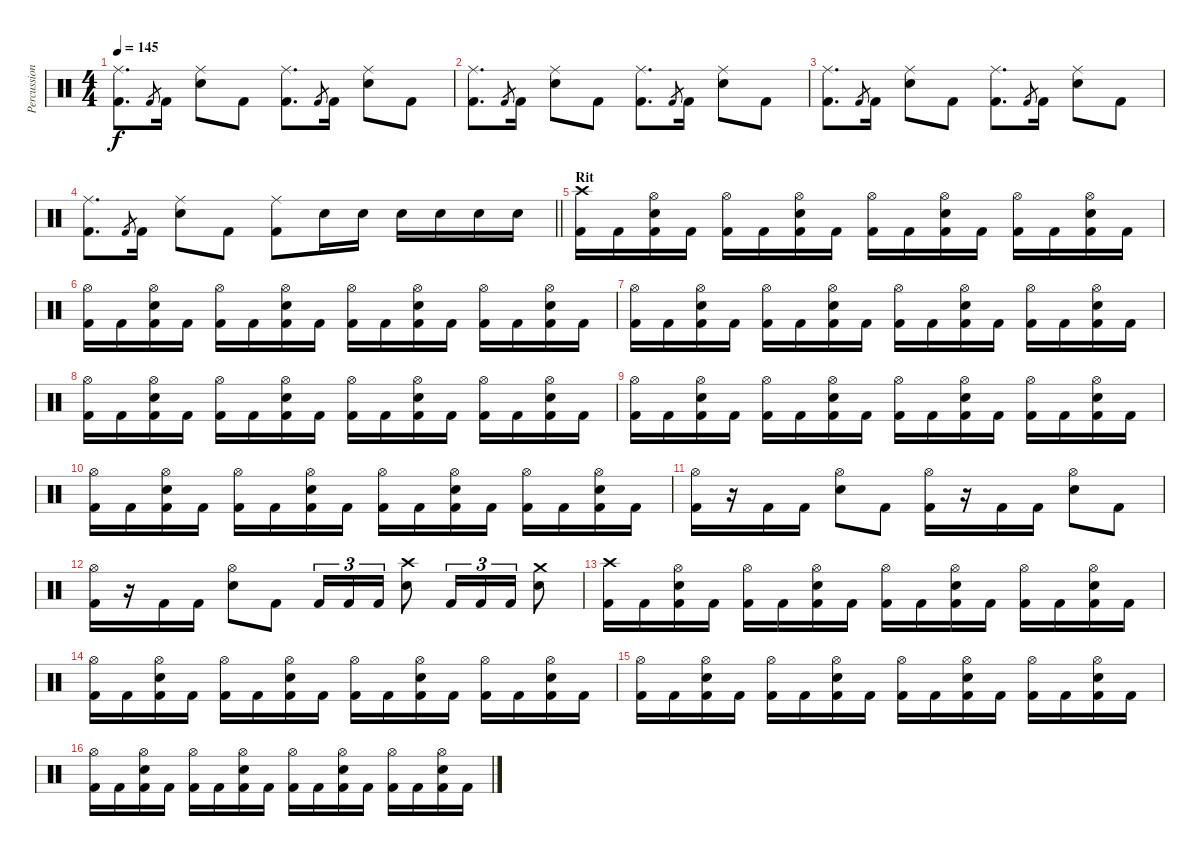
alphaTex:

\track ("Percussioni" "Percussion") {instrument percussion}
\staff {score}
\articulation defaults
\ts (4 4)
\tempo 145
\clef neutral
\ks c
("Ride (middle)" "Kick (hit) 2").8{d dy f} "Kick (hit) 2".8{gr} "Kick (hit) 2".16 ("Ride (middle)" "Snare (hit) 2").8 "Kick (hit) 2".8 ("Ride (middle)" "Kick (hit) 2").8{d} "Kick (hit) 2".8{gr} "Kick (hit) 2".16 ("Ride (middle)" "Snare (hit) 2").8 "Kick (hit) 2".8 |
("Ride (middle)" "Kick (hit) 2").8{d} "Kick (hit) 2".8{gr} "Kick (hit) 2".16 ("Ride (middle)" "Snare (hit) 2").8 "Kick (hit) 2".8 ("Ride (middle)" "Kick (hit) 2").8{d} "Kick (hit) 2".8{gr} "Kick (hit) 2".16 ("Ride (middle)" "Snare (hit) 2").8 "Kick (hit) 2".8 |
("Ride (middle)" "Kick (hit) 2").8{d} "Kick (hit) 2".8{gr} "Kick (hit) 2".16 ("Ride (middle)" "Snare (hit) 2").8 "Kick (hit) 2".8 ("Ride (middle)" "Kick (hit) 2").8{d} "Kick (hit) 2".8{gr} "Kick (hit) 2".16 ("Ride (middle)" "Snare (hit) 2").8 "Kick (hit) 2".8 |
\barLineRight lightlight
("Ride (middle)" "Kick (hit) 2").8{d} "Kick (hit) 2".8{gr} "Kick (hit) 2".16 ("Ride (middle)" "Snare (hit) 2").8 "Kick (hit) 2".8 ("Ride (middle)" "Kick (hit) 2").8 "Snare (hit) 2".16 "Snare (hit) 2".16 "Snare (hit) 2".16 "Snare (hit) 2".16 "Snare (hit) 2".16 "Snare (hit) 2".16 |
\section ("" "Rit")
("Crash high (hit)" "Kick (hit) 2").16 "Kick (hit) 2".16 ("Hi-Hat (open)" "Kick (hit) 2" "Snare (hit) 2").16 "Kick (hit) 2".16 ("Hi-Hat (open)" "Kick (hit) 2").16 "Kick (hit) 2".16 ("Hi-Hat (open)" "Kick (hit) 2" "Snare (hit) 2").16 "Kick (hit) 2".16 ("Hi-Hat (open)" "Kick (hit) 2").16 "Kick (hit) 2".16 ("Hi-Hat (open)" "Kick (hit) 2" "Snare (hit) 2").16 "Kick (hit) 2".16 ("Hi-Hat (open)" "Kick (hit) 2").16 "Kick (hit) 2".16 ("Hi-Hat (open)" "Kick (hit) 2" "Snare (hit) 2").16 "Kick (hit) 2".16 |
("Hi-Hat (open)" "Kick (hit) 2").16 "Kick (hit) 2".16 ("Hi-Hat (open)" "Kick (hit) 2" "Snare (hit) 2").16 "Kick (hit) 2".16 ("Hi-Hat (open)" "Kick (hit) 2").16 "Kick (hit) 2".16 ("Hi-Hat (open)" "Kick (hit) 2" "Snare (hit) 2").16 "Kick (hit) 2".16 ("Hi-Hat (open)" "Kick (hit) 2").16 "Kick (hit) 2".16 ("Hi-Hat (open)" "Kick (hit) 2" "Snare (hit) 2").16 "Kick (hit) 2".16 ("Hi-Hat (open)" "Kick (hit) 2").16 "Kick (hit) 2".16 ("Hi-Hat (open)" "Kick (hit) 2" "Snare (hit) 2").16 "Kick (hit) 2".16 |
("Hi-Hat (open)" "Kick (hit) 2").16 "Kick (hit) 2".16 ("Hi-Hat (open)" "Kick (hit) 2" "Snare (hit) 2").16 "Kick (hit) 2".16 ("Hi-Hat (open)" "Kick (hit) 2").16 "Kick (hit) 2".16 ("Hi-Hat (open)" "Kick (hit) 2" "Snare (hit) 2").16 "Kick (hit) 2".16 ("Hi-Hat (open)" "Kick (hit) 2").16 "Kick (hit) 2".16 ("Hi-Hat (open)" "Kick (hit) 2" "Snare (hit) 2").16 "Kick (hit) 2".16 ("Hi-Hat (open)" "Kick (hit) 2").16 "Kick (hit) 2".16 ("Hi-Hat (open)" "Kick (hit) 2" "Snare (hit) 2").16 "Kick (hit) 2".16 |
("Hi-Hat (open)" "Kick (hit) 2").16 "Kick (hit) 2".16 ("Hi-Hat (open)" "Kick (hit) 2" "Snare (hit) 2").16 "Kick (hit) 2".16 ("Hi-Hat (open)" "Kick (hit) 2").16 "Kick (hit) 2".16 ("Hi-Hat (open)" "Kick (hit) 2" "Snare (hit) 2").16 "Kick (hit) 2".16 ("Hi-Hat (open)" "Kick (hit) 2").16 "Kick (hit) 2".16 ("Hi-Hat (open)" "Kick (hit) 2" "Snare (hit) 2").16 "Kick (hit) 2".16 ("Hi-Hat (open)" "Kick (hit) 2").16 "Kick (hit) 2".16 ("Hi-Hat (open)" "Kick (hit) 2" "Snare (hit) 2").16 "Kick (hit) 2".16 |
("Hi-Hat (open)" "Kick (hit) 2").16 "Kick (hit) 2".16 ("Hi-Hat (open)" "Kick (hit) 2" "Snare (hit) 2").16 "Kick (hit) 2".16 ("Hi-Hat (open)" "Kick (hit) 2").16 "Kick (hit) 2".16 ("Hi-Hat (open)" "Kick (hit) 2" "Snare (hit) 2").16 "Kick (hit) 2".16 ("Hi-Hat (open)" "Kick (hit) 2").16 "Kick (hit) 2".16 ("Hi-Hat (open)" "Kick (hit) 2" "Snare (hit) 2").16 "Kick (hit) 2".16 ("Hi-Hat (open)" "Kick (hit) 2").16 "Kick (hit) 2".16 ("Hi-Hat (open)" "Kick (hit) 2" "Snare (hit) 2").16 "Kick (hit) 2".16 |
("Hi-Hat (open)" "Kick (hit) 2").16 "Kick (hit) 2".16 ("Hi-Hat (open)" "Kick (hit) 2" "Snare (hit) 2").16 "Kick (hit) 2".16 ("Hi-Hat (open)" "Kick (hit) 2").16 "Kick (hit) 2".16 ("Hi-Hat (open)" "Kick (hit) 2" "Snare (hit) 2").16 "Kick (hit) 2".16 ("Hi-Hat (open)" "Kick (hit) 2").16 "Kick (hit) 2".16 ("Hi-Hat (open)" "Kick (hit) 2" "Snare (hit) 2").16 "Kick (hit) 2".16 ("Hi-Hat (open)" "Kick (hit) 2").16 "Kick (hit) 2".16 ("Hi-Hat (open)" "Kick (hit) 2" "Snare (hit) 2").16 "Kick (hit) 2".16 |
("Hi-Hat (open)" "Kick (hit) 2").16 r.16 "Kick (hit) 2".16 "Kick (hit) 2".16 ("Hi-Hat (open)" "Snare (hit) 2").8 "Kick (hit) 2".8 ("Hi-Hat (open)" "Kick (hit) 2").16 r.16 "Kick (hit) 2".16 "Kick (hit) 2".16 ("Hi-Hat (open)" "Snare (hit) 2").8 "Kick (hit) 2".8 |
("Hi-Hat (open)" "Kick (hit) 2").16 r.16 "Kick (hit) 2".16 "Kick (hit) 2".16 ("Hi-Hat (open)" "Snare (hit) 2").8 "Kick (hit) 2".8 "Kick (hit) 2".16{tu (3 2)} "Kick (hit) 2".16{tu (3 2)} "Kick (hit) 2".16{tu (3 2)} ("Crash high (hit)" "Snare (hit) 2").8 "Kick (hit) 2".16{tu (3 2)} "Kick (hit) 2".16{tu (3 2)} "Kick (hit) 2".16{tu (3 2)} ("Crash medium (hit)" "Snare (hit) 2").8 |
("Crash high (hit)" "Kick (hit) 2").16 "Kick (hit) 2".16 ("Hi-Hat (open)" "Kick (hit) 2" "Snare (hit) 2").16 "Kick (hit) 2".16 ("Hi-Hat (open)" "Kick (hit) 2").16 "Kick (hit) 2".16 ("Hi-Hat (open)" "Kick (hit) 2" "Snare (hit) 2").16 "Kick (hit) 2".16 ("Hi-Hat (open)" "Kick (hit) 2").16 "Kick (hit) 2".16 ("Hi-Hat (open)" "Kick (hit) 2" "Snare (hit) 2").16 "Kick (hit) 2".16 ("Hi-Hat (open)" "Kick (hit) 2").16 "Kick (hit) 2".16 ("Hi-Hat (open)" "Kick (hit) 2" "Snare (hit) 2").16 "Kick (hit) 2".16 |
("Hi-Hat (open)" "Kick (hit) 2").16 "Kick (hit) 2".16 ("Hi-Hat (open)" "Kick (hit) 2" "Snare (hit) 2").16 "Kick (hit) 2".16 ("Hi-Hat (open)" "Kick (hit) 2").16 "Kick (hit) 2".16 ("Hi-Hat (open)" "Kick (hit) 2" "Snare (hit) 2").16 "Kick (hit) 2".16 ("Hi-Hat (open)" "Kick (hit) 2").16 "Kick (hit) 2".16 ("Hi-Hat (open)" "Kick (hit) 2" "Snare (hit) 2").16 "Kick (hit) 2".16 ("Hi-Hat (open)" "Kick (hit) 2").16 "Kick (hit) 2".16 ("Hi-Hat (open)" "Kick (hit) 2" "Snare (hit) 2").16 "Kick (hit) 2".16 |
("Hi-Hat (open)" "Kick (hit) 2").16 "Kick (hit) 2".16 ("Hi-Hat (open)" "Kick (hit) 2" "Snare (hit) 2").16 "Kick (hit) 2".16 ("Hi-Hat (open)" "Kick (hit) 2").16 "Kick (hit) 2".16 ("Hi-Hat (open)" "Kick (hit) 2" "Snare (hit) 2").16 "Kick (hit) 2".16 ("Hi-Hat (open)" "Kick (hit) 2").16 "Kick (hit) 2".16 ("Hi-Hat (open)" "Kick (hit) 2" "Snare (hit) 2").16 "Kick (hit) 2".16 ("Hi-Hat (open)" "Kick (hit) 2").16 "Kick (hit) 2".16 ("Hi-Hat (open)" "Kick (hit) 2" "Snare (hit) 2").16 "Kick (hit) 2".16 |
("Hi-Hat (open)" "Kick (hit) 2").16 "Kick (hit) 2".16 ("Hi-Hat (open)" "Kick (hit) 2" "Snare (hit) 2").16 "Kick (hit) 2".16 ("Hi-Hat (open)" "Kick (hit) 2").16 "Kick (hit) 2".16 ("Hi-Hat (open)" "Kick (hit) 2" "Snare (hit) 2").16 "Kick (hit) 2".16 ("Hi-Hat (open)" "Kick (hit) 2").16 "Kick (hit) 2".16 ("Hi-Hat (open)" "Kick (hit) 2" "Snare (hit) 2").16 "Kick (hit) 2".16 ("Hi-Hat (open)" "Kick (hit) 2").16 "Kick (hit) 2".16 ("Hi-Hat (open)" "Kick (hit) 2" "Snare (hit) 2").16 "Kick (hit) 2".16
